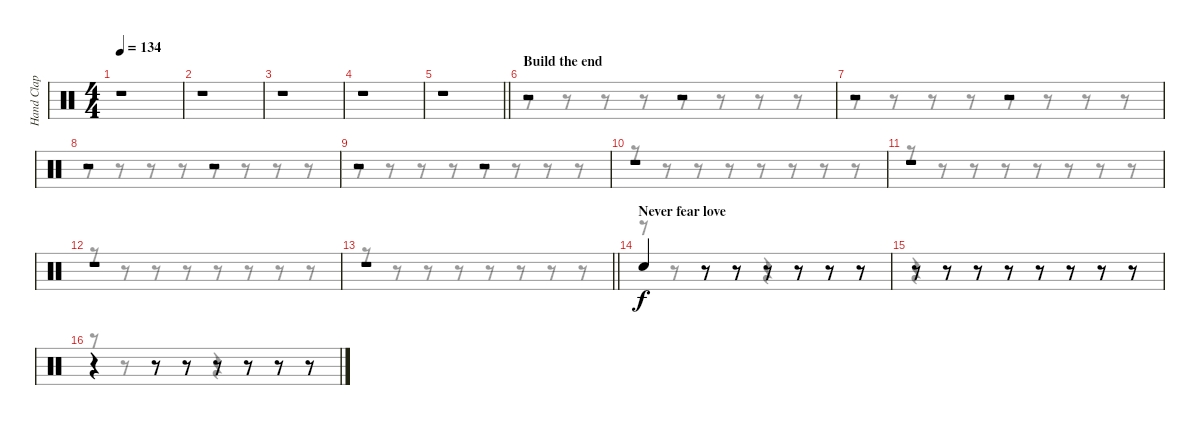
\track ("Hand Clap" "Hand Clap") {instrument percussion}
\staff {score}
\articulation defaults
\voice
\ts (4 4)
\tempo 134
\clef neutral
\ks c
r.1{dy f} |
r.1 |
r.1 |
r.1 |
\barLineRight lightlight
r.1 |
\section ("" "Build the end")
r.2 r.2 |
r.2 r.2 |
r.2 r.2 |
r.2 r.2 |
r.1 |
r.1 |
r.1 |
\barLineRight lightlight
r.1 |
\section ("" "Never fear love")
"Hand Clap (hit)".4 r.8 r.8 r.8 r.8 r.8 r.8 |
r.8 r.8 r.8 r.8 r.8 r.8 r.8 r.8 |
r.4 r.8 r.8 r.8 r.8 r.8 r.8
\voice
\clef neutral
\ottava regular
\simile none
\ks c
|
|
|
|
\barLineRight lightlight
|
r.8 r.8 r.8 r.8 r.8 r.8 r.8 r.8 |
r.8 r.8 r.8 r.8 r.8 r.8 r.8 r.8 |
r.8 r.8 r.8 r.8 r.8 r.8 r.8 r.8 |
r.8 r.8 r.8 r.8 r.8 r.8 r.8 r.8 |
r.8 r.8 r.8 r.8 r.8 r.8 r.8 r.8 |
r.8 r.8 r.8 r.8 r.8 r.8 r.8 r.8 |
r.8 r.8 r.8 r.8 r.8 r.8 r.8 r.8 |
\barLineRight lightlight
r.8 r.8 r.8 r.8 r.8 r.8 r.8 r.8 |
r.8 r.8 r.8 r.8 r.4 r.8 r.8 |
r.4 r.8 r.8 r.8 r.8 r.8 r.8 |
r.8 r.8 r.8 r.8 r.4 r.8 r.8
